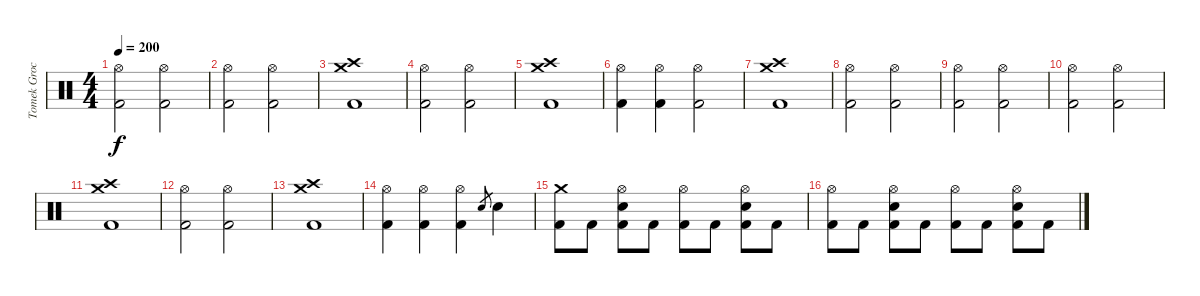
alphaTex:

\track ("Tomek Grochowski" "Tomek Groc") {instrument percussion}
\staff {score}
\articulation defaults
\ts (4 4)
\tempo 200
\clef neutral
\ks c
("Hi-Hat (open)" "Kick (hit) 2").2{dy f} ("Hi-Hat (open)" "Kick (hit) 2").2 |
("Hi-Hat (open)" "Kick (hit) 2").2 ("Hi-Hat (open)" "Kick (hit) 2").2 |
("Crash high (hit)" "Crash medium (hit)" "Kick (hit) 2").1 |
("Hi-Hat (open)" "Kick (hit) 2").2 ("Hi-Hat (open)" "Kick (hit) 2").2 |
("Crash high (hit)" "Crash medium (hit)" "Kick (hit) 2").1 |
("Hi-Hat (open)" "Kick (hit) 2").4 ("Hi-Hat (open)" "Kick (hit) 2").4 ("Hi-Hat (open)" "Kick (hit) 2").2 |
("Crash high (hit)" "Crash medium (hit)" "Kick (hit) 2").1 |
("Hi-Hat (open)" "Kick (hit) 2").2 ("Hi-Hat (open)" "Kick (hit) 2").2 |
("Hi-Hat (open)" "Kick (hit) 2").2 ("Hi-Hat (open)" "Kick (hit) 2").2 |
("Hi-Hat (open)" "Kick (hit) 2").2 ("Hi-Hat (open)" "Kick (hit) 2").2 |
("Crash high (hit)" "Crash medium (hit)" "Kick (hit) 2").1 |
("Hi-Hat (open)" "Kick (hit) 2").2 ("Hi-Hat (open)" "Kick (hit) 2").2 |
("Crash medium (hit)" "Crash high (hit)" "Kick (hit) 2").1 |
("Hi-Hat (open)" "Kick (hit) 2").4 ("Hi-Hat (open)" "Kick (hit) 2").4 ("Hi-Hat (open)" "Kick (hit) 2").4 "Electric Snare (hit)"{h}.8{gr} "Electric Snare (hit)".4 |
("Crash medium (hit)" "Kick (hit) 2").8 "Kick (hit) 2".8 ("Hi-Hat (open)" "Electric Snare (hit)" "Kick (hit) 2").8 "Kick (hit) 2".8 ("Hi-Hat (open)" "Kick (hit) 2").8 "Kick (hit) 2".8 ("Hi-Hat (open)" "Electric Snare (hit)" "Kick (hit) 2").8 "Kick (hit) 2".8 |
("Hi-Hat (open)" "Kick (hit) 2").8 "Kick (hit) 2".8 ("Hi-Hat (open)" "Electric Snare (hit)" "Kick (hit) 2").8 "Kick (hit) 2".8 ("Hi-Hat (open)" "Kick (hit) 2").8 "Kick (hit) 2".8 ("Hi-Hat (open)" "Electric Snare (hit)" "Kick (hit) 2").8 "Kick (hit) 2".8
